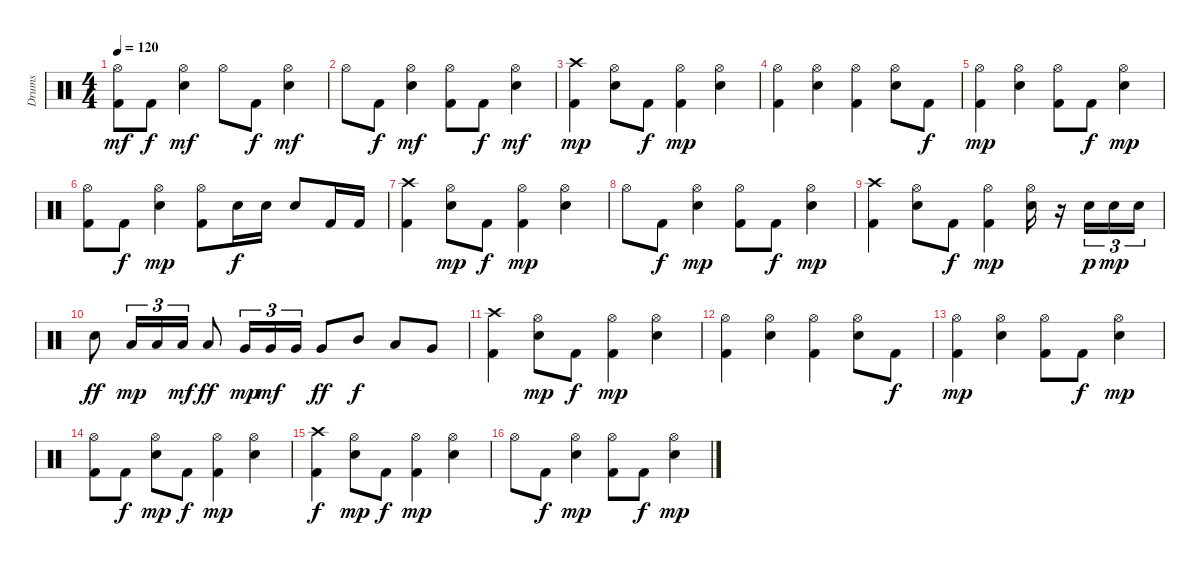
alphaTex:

\track ("Drums" "Drums") {instrument percussion}
\staff {score}
\articulation defaults
\ts (4 4)
\tempo 120
\clef neutral
\ks c
("Hi-Hat (open)" "Kick (hit) 2").8{dy mf} "Kick (hit) 2".8{dy f} ("Hi-Hat (open)" "Electric Snare (hit)").4{dy mf} "Hi-Hat (open)".8 "Kick (hit) 2".8{dy f} ("Hi-Hat (open)" "Electric Snare (hit)").4{dy mf} |
"Hi-Hat (open)".8 "Kick (hit) 2".8{dy f} ("Hi-Hat (open)" "Electric Snare (hit)").4{dy mf} ("Hi-Hat (open)" "Kick (hit) 2").8 "Kick (hit) 2".8{dy f} ("Hi-Hat (open)" "Electric Snare (hit)").4{dy mf} |
("Crash high (hit)" "Kick (hit) 2").4{dy mp volume 9} ("Hi-Hat (open)" "Snare (hit) 2").8 "Kick (hit) 2".8{dy f} ("Hi-Hat (open)" "Kick (hit) 2").4{dy mp} ("Hi-Hat (open)" "Snare (hit) 2").4 |
("Hi-Hat (open)" "Kick (hit) 2").4 ("Hi-Hat (open)" "Snare (hit) 2").4 ("Hi-Hat (open)" "Kick (hit) 2").4 ("Hi-Hat (open)" "Snare (hit) 2").8 "Kick (hit) 2".8{dy f} |
("Hi-Hat (open)" "Kick (hit) 2").4{dy mp} ("Hi-Hat (open)" "Snare (hit) 2").4 ("Hi-Hat (open)" "Kick (hit) 2").8 "Kick (hit) 2".8{dy f} ("Hi-Hat (open)" "Snare (hit) 2").4{dy mp} |
("Hi-Hat (open)" "Kick (hit) 2").8 "Kick (hit) 2".8{dy f} ("Hi-Hat (open)" "Snare (hit) 2").4{dy mp} ("Hi-Hat (open)" "Kick (hit) 2").8 "Snare (hit) 2".16{dy f} "Snare (hit) 2".16 "Snare (hit) 2".8 "Kick (hit) 2".16 "Kick (hit) 2".16 |
("Crash high (hit)" "Kick (hit) 2").4 ("Hi-Hat (open)" "Snare (hit) 2").8{dy mp} "Kick (hit) 2".8{dy f} ("Hi-Hat (open)" "Kick (hit) 2").4{dy mp} ("Hi-Hat (open)" "Snare (hit) 2").4 |
"Hi-Hat (open)".8 "Kick (hit) 2".8{dy f} ("Hi-Hat (open)" "Snare (hit) 2").4{dy mp} ("Hi-Hat (open)" "Kick (hit) 2").8 "Kick (hit) 2".8{dy f} ("Hi-Hat (open)" "Snare (hit) 2").4{dy mp} |
("Crash high (hit)" "Kick (hit) 2").4 ("Hi-Hat (open)" "Snare (hit) 2").8 "Kick (hit) 2".8{dy f} ("Hi-Hat (open)" "Kick (hit) 2").4{dy mp} ("Hi-Hat (open)" "Snare (hit) 2").16 r.16 "Electric Snare (hit)".16{tu (3 2) dy p} "Electric Snare (hit)".16{tu (3 2) dy mp} "Electric Snare (hit)".16{tu (3 2)} |
"Electric Snare (hit)".8{dy ff} "Low Tom (hit)".16{tu (3 2) dy mp} "Low Tom (hit)".16{tu (3 2)} "Low Tom (hit)".16{tu (3 2) dy mf} "Low Tom (hit)".8{dy ff} "Very Low Tom (hit)".16{tu (3 2) dy mp} "Very Low Tom (hit)".16{tu (3 2) dy mf} "Very Low Tom (hit)".16{tu (3 2)} "Very Low Tom (hit)".8{dy ff} "Mid Tom (hit)".8{dy f} "Low Tom (hit)".8 "Very Low Tom (hit)".8 |
("Crash high (hit)" "Kick (hit) 2").4 ("Hi-Hat (open)" "Snare (hit) 2").8{dy mp} "Kick (hit) 2".8{dy f} ("Hi-Hat (open)" "Kick (hit) 2").4{dy mp} ("Hi-Hat (open)" "Snare (hit) 2").4 |
("Hi-Hat (open)" "Kick (hit) 2").4 ("Hi-Hat (open)" "Snare (hit) 2").4 ("Hi-Hat (open)" "Kick (hit) 2").4 ("Hi-Hat (open)" "Snare (hit) 2").8 "Kick (hit) 2".8{dy f} |
("Hi-Hat (open)" "Kick (hit) 2").4{dy mp} ("Hi-Hat (open)" "Snare (hit) 2").4 ("Hi-Hat (open)" "Kick (hit) 2").8 "Kick (hit) 2".8{dy f} ("Hi-Hat (open)" "Snare (hit) 2").4{dy mp} |
("Hi-Hat (open)" "Kick (hit) 2").8 "Kick (hit) 2".8{dy f} ("Hi-Hat (open)" "Snare (hit) 2").8{dy mp} "Kick (hit) 2".8{dy f} ("Hi-Hat (open)" "Kick (hit) 2").4{dy mp} ("Hi-Hat (open)" "Snare (hit) 2").4 |
("Crash high (hit)" "Kick (hit) 2").4{dy f} ("Hi-Hat (open)" "Snare (hit) 2").8{dy mp} "Kick (hit) 2".8{dy f} ("Hi-Hat (open)" "Kick (hit) 2").4{dy mp} ("Hi-Hat (open)" "Snare (hit) 2").4 |
"Hi-Hat (open)".8 "Kick (hit) 2".8{dy f} ("Hi-Hat (open)" "Snare (hit) 2").4{dy mp} ("Hi-Hat (open)" "Kick (hit) 2").8 "Kick (hit) 2".8{dy f} ("Hi-Hat (open)" "Snare (hit) 2").4{dy mp}
